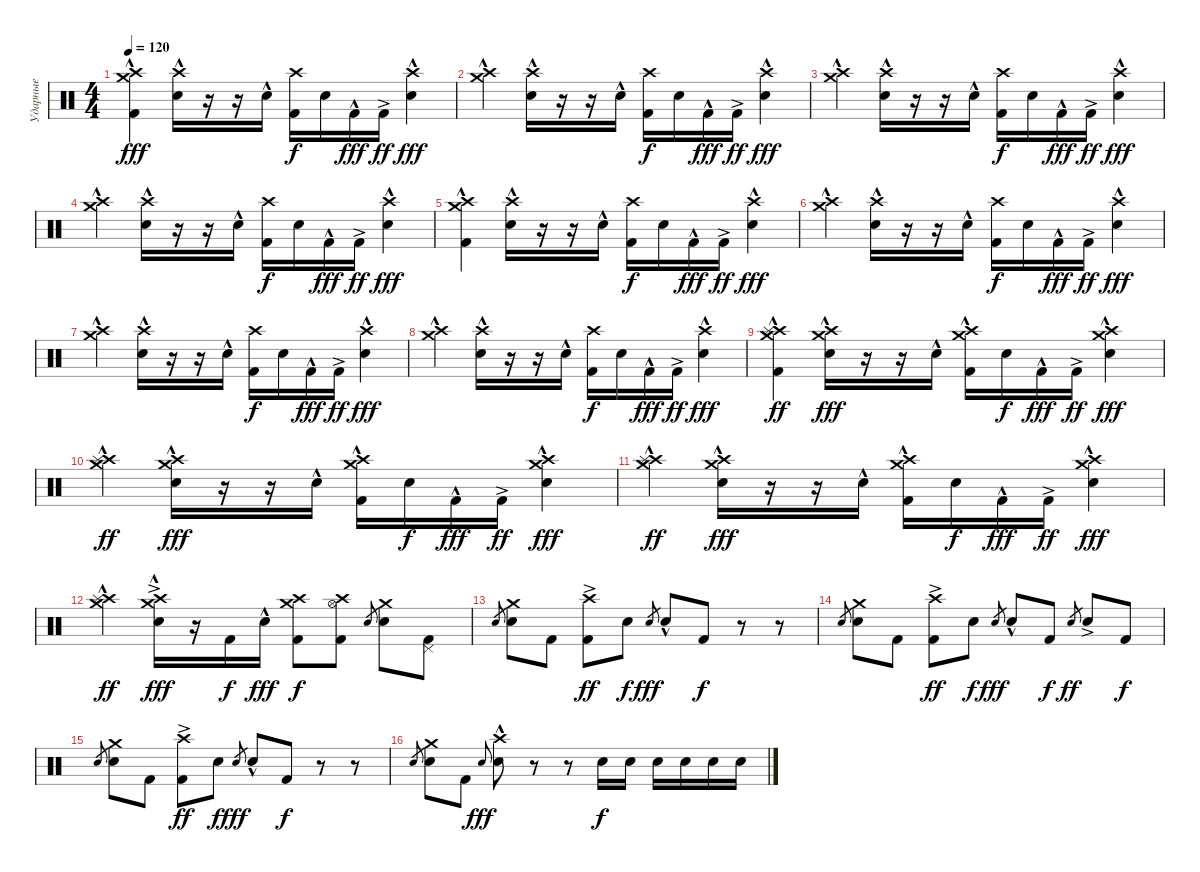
\track ("Ударные" "Ударные") {instrument percussion}
\staff {score}
\articulation defaults
\ts (4 4)
\tempo 120
\clef neutral
\ks c
("Crash high (hit)" "Crash medium (hit)"{hac} "Kick (hit) 2").4{dy fff} ("Crash high (hit)" "Electric Snare (hit)"{hac}).16 r.16 r.16 "Electric Snare (hit)"{hac}.16 ("Crash high (hit)" "Kick (hit) 2").16{dy f} "Electric Snare (hit)".16 "Kick (hit) 2"{hac}.16{dy fff} "Kick (hit) 2"{ac}.16{dy ff} ("Crash high (hit)" "Electric Snare (hit)"{hac}).4{dy fff} |
("Crash high (hit)" "Crash medium (hit)"{hac}).4 ("Crash high (hit)" "Electric Snare (hit)"{hac}).16 r.16 r.16 "Electric Snare (hit)"{hac}.16 ("Crash high (hit)" "Kick (hit) 2").16{dy f} "Electric Snare (hit)".16 "Kick (hit) 2"{hac}.16{dy fff} "Kick (hit) 2"{ac}.16{dy ff} ("Crash high (hit)" "Electric Snare (hit)"{hac}).4{dy fff} |
("Crash high (hit)" "Crash medium (hit)"{hac}).4 ("Crash high (hit)" "Electric Snare (hit)"{hac}).16 r.16 r.16 "Electric Snare (hit)"{hac}.16 ("Crash high (hit)" "Kick (hit) 2").16{dy f} "Electric Snare (hit)".16 "Kick (hit) 2"{hac}.16{dy fff} "Kick (hit) 2"{ac}.16{dy ff} ("Crash high (hit)" "Electric Snare (hit)"{hac}).4{dy fff} |
("Crash high (hit)" "Crash medium (hit)"{hac}).4 ("Crash high (hit)" "Electric Snare (hit)"{hac}).16 r.16 r.16 "Electric Snare (hit)"{hac}.16 ("Crash high (hit)" "Kick (hit) 2").16{dy f} "Electric Snare (hit)".16 "Kick (hit) 2"{hac}.16{dy fff} "Kick (hit) 2"{ac}.16{dy ff} ("Crash high (hit)" "Electric Snare (hit)"{hac}).4{dy fff} |
("Crash high (hit)" "Crash medium (hit)"{hac} "Kick (hit) 2").4 ("Crash high (hit)" "Electric Snare (hit)"{hac}).16 r.16 r.16 "Electric Snare (hit)"{hac}.16 ("Crash high (hit)" "Kick (hit) 2").16{dy f} "Electric Snare (hit)".16 "Kick (hit) 2"{hac}.16{dy fff} "Kick (hit) 2"{ac}.16{dy ff} ("Crash high (hit)" "Electric Snare (hit)"{hac}).4{dy fff} |
("Crash high (hit)" "Crash medium (hit)"{hac}).4 ("Crash high (hit)" "Electric Snare (hit)"{hac}).16 r.16 r.16 "Electric Snare (hit)"{hac}.16 ("Crash high (hit)" "Kick (hit) 2").16{dy f} "Electric Snare (hit)".16 "Kick (hit) 2"{hac}.16{dy fff} "Kick (hit) 2"{ac}.16{dy ff} ("Crash high (hit)" "Electric Snare (hit)"{hac}).4{dy fff} |
("Crash high (hit)" "Crash medium (hit)"{hac}).4 ("Crash high (hit)" "Electric Snare (hit)"{hac}).16 r.16 r.16 "Electric Snare (hit)"{hac}.16 ("Crash high (hit)" "Kick (hit) 2").16{dy f} "Electric Snare (hit)".16 "Kick (hit) 2"{hac}.16{dy fff} "Kick (hit) 2"{ac}.16{dy ff} ("Crash high (hit)" "Electric Snare (hit)"{hac}).4{dy fff} |
("Crash high (hit)" "Crash medium (hit)"{hac}).4 ("Crash high (hit)" "Electric Snare (hit)"{hac}).16 r.16 r.16 "Electric Snare (hit)"{hac}.16 ("Crash high (hit)" "Kick (hit) 2").16{dy f} "Electric Snare (hit)".16 "Kick (hit) 2"{hac}.16{dy fff} "Kick (hit) 2"{ac}.16{dy ff} ("Crash high (hit)" "Electric Snare (hit)"{hac}).4{dy fff} |
("Crash high (hit)"{hac} "Crash medium (hit)"{hac} "Splash (hit)"{hac} "Kick (hit) 2").4{dy ff} ("Crash high (hit)" "Crash medium (hit)"{hac} "Electric Snare (hit)"{hac}).16{dy fff} r.16 r.16 "Electric Snare (hit)"{hac}.16 ("Crash high (hit)" "Crash medium (hit)"{hac} "Kick (hit) 2").16 "Electric Snare (hit)".16{dy f} "Kick (hit) 2"{hac}.16{dy fff} "Kick (hit) 2"{ac}.16{dy ff} ("Crash high (hit)" "Crash medium (hit)"{hac} "Electric Snare (hit)"{hac}).4{dy fff} |
("Crash high (hit)"{hac} "Crash medium (hit)"{hac} "Splash (hit)"{hac}).4{dy ff} ("Crash high (hit)" "Crash medium (hit)"{hac} "Electric Snare (hit)"{hac}).16{dy fff} r.16 r.16 "Electric Snare (hit)"{hac}.16 ("Crash high (hit)" "Crash medium (hit)"{hac} "Kick (hit) 2").16 "Electric Snare (hit)".16{dy f} "Kick (hit) 2"{hac}.16{dy fff} "Kick (hit) 2"{ac}.16{dy ff} ("Crash high (hit)" "Crash medium (hit)"{hac} "Electric Snare (hit)"{hac}).4{dy fff} |
("Crash high (hit)"{hac} "Crash medium (hit)"{hac} "Splash (hit)"{hac}).4{dy ff} ("Crash high (hit)" "Crash medium (hit)"{hac} "Electric Snare (hit)"{hac}).16{dy fff} r.16 r.16 "Electric Snare (hit)"{hac}.16 ("Crash high (hit)" "Crash medium (hit)"{hac} "Kick (hit) 2").16 "Electric Snare (hit)".16{dy f} "Kick (hit) 2"{hac}.16{dy fff} "Kick (hit) 2"{ac}.16{dy ff} ("Crash high (hit)" "Crash medium (hit)"{hac} "Electric Snare (hit)"{hac}).4{dy fff} |
("Crash high (hit)"{hac} "Crash medium (hit)"{hac} "Splash (hit)"{hac}).4{dy ff} ("Crash high (hit)" "Crash medium (hit)"{ac} "Electric Snare (hit)"{hac}).16{dy fff} r.16 "Kick (hit) 2".16{dy f} "Electric Snare (hit)"{hac}.16{dy fff} ("Crash high (hit)" "Crash medium (hit)" "Kick (hit) 2").8{dy f} ("Crash high (hit)" "Hi-Hat (open)" "Kick (hit) 2").8 "Electric Snare (hit)".8{gr} ("Crash medium (hit)" "Electric Snare (hit)").8 ("Pedal Hi-Hat (hit)" "Kick (hit) 2").8 |
"Electric Snare (hit)".8{gr} ("Crash medium (hit)" "Electric Snare (hit)").8 "Kick (hit) 2".8 ("Crash high (hit)" "Kick (hit) 2"{ac}).8{dy ff} "Electric Snare (hit)".8{dy f} "Electric Snare (hit)".8{gr dy fff} "Electric Snare (hit)"{hac}.8 "Kick (hit) 2".8{dy f} r.8 r.8 |
"Electric Snare (hit)".8{gr} ("Crash medium (hit)" "Electric Snare (hit)").8 "Kick (hit) 2".8 ("Crash high (hit)" "Kick (hit) 2"{ac}).8{dy ff} "Electric Snare (hit)".8{dy f} "Electric Snare (hit)".8{gr dy fff} "Electric Snare (hit)"{hac}.8 "Kick (hit) 2".8{dy f} "Electric Snare (hit)".8{gr dy ff} "Electric Snare (hit)"{ac}.8 "Kick (hit) 2".8{dy f} |
"Electric Snare (hit)".8{gr} ("Crash medium (hit)" "Electric Snare (hit)").8 "Kick (hit) 2".8 ("Crash high (hit)" "Kick (hit) 2"{ac}).8{dy ff} "Electric Snare (hit)".8{dy f} "Electric Snare (hit)".8{gr dy fff} "Electric Snare (hit)"{hac}.8 "Kick (hit) 2".8{dy f} r.8 r.8 |
"Electric Snare (hit)".8{gr} ("Crash medium (hit)" "Electric Snare (hit)").8 "Kick (hit) 2".8 "Electric Snare (hit)".8{gr onbeat dy fff} ("Crash high (hit)" "Electric Snare (hit)"{hac}).8 r.8 r.8 "Electric Snare (hit)".16{dy f} "Electric Snare (hit)".16 "Electric Snare (hit)".16 "Electric Snare (hit)".16 "Electric Snare (hit)".16 "Electric Snare (hit)".16
